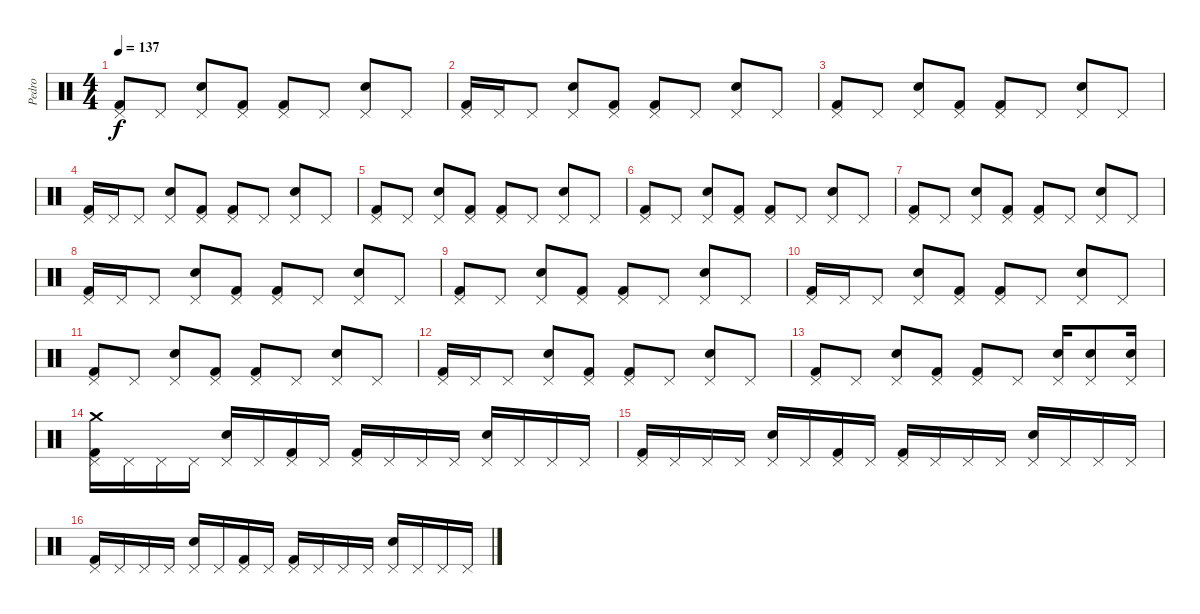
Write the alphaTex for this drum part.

\track ("Pedro" "Pedro") {instrument percussion}
\staff {score}
\articulation defaults
\ts (4 4)
\tempo 137
\clef neutral
\ks c
("Pedal Hi-Hat (hit)" "Kick (hit) 2").8{dy f} "Pedal Hi-Hat (hit)".8 ("Pedal Hi-Hat (hit)" "Snare (hit) 2").8 ("Pedal Hi-Hat (hit)" "Kick (hit) 2").8 ("Pedal Hi-Hat (hit)" "Kick (hit) 2").8 "Pedal Hi-Hat (hit)".8 ("Pedal Hi-Hat (hit)" "Snare (hit) 2").8 "Pedal Hi-Hat (hit)".8 |
("Pedal Hi-Hat (hit)" "Kick (hit) 2").16 "Pedal Hi-Hat (hit)".16 "Pedal Hi-Hat (hit)".8 ("Pedal Hi-Hat (hit)" "Snare (hit) 2").8 ("Pedal Hi-Hat (hit)" "Kick (hit) 2").8 ("Pedal Hi-Hat (hit)" "Kick (hit) 2").8 "Pedal Hi-Hat (hit)".8 ("Pedal Hi-Hat (hit)" "Snare (hit) 2").8 "Pedal Hi-Hat (hit)".8 |
("Kick (hit) 2" "Pedal Hi-Hat (hit)").8 "Pedal Hi-Hat (hit)".8 ("Snare (hit) 2" "Pedal Hi-Hat (hit)").8 ("Kick (hit) 2" "Pedal Hi-Hat (hit)").8 ("Kick (hit) 2" "Pedal Hi-Hat (hit)").8 "Pedal Hi-Hat (hit)".8 ("Snare (hit) 2" "Pedal Hi-Hat (hit)").8 "Pedal Hi-Hat (hit)".8 |
("Pedal Hi-Hat (hit)" "Kick (hit) 2").16 "Pedal Hi-Hat (hit)".16 "Pedal Hi-Hat (hit)".8 ("Pedal Hi-Hat (hit)" "Snare (hit) 2").8 ("Pedal Hi-Hat (hit)" "Kick (hit) 2").8 ("Pedal Hi-Hat (hit)" "Kick (hit) 2").8 "Pedal Hi-Hat (hit)".8 ("Pedal Hi-Hat (hit)" "Snare (hit) 2").8 "Pedal Hi-Hat (hit)".8 |
("Kick (hit) 2" "Pedal Hi-Hat (hit)").8 "Pedal Hi-Hat (hit)".8 ("Snare (hit) 2" "Pedal Hi-Hat (hit)").8 ("Kick (hit) 2" "Pedal Hi-Hat (hit)").8 ("Kick (hit) 2" "Pedal Hi-Hat (hit)").8 "Pedal Hi-Hat (hit)".8 ("Snare (hit) 2" "Pedal Hi-Hat (hit)").8 "Pedal Hi-Hat (hit)".8 |
("Pedal Hi-Hat (hit)" "Kick (hit) 2").8 "Pedal Hi-Hat (hit)".8 ("Pedal Hi-Hat (hit)" "Snare (hit) 2").8 ("Pedal Hi-Hat (hit)" "Kick (hit) 2").8 ("Pedal Hi-Hat (hit)" "Kick (hit) 2").8 "Pedal Hi-Hat (hit)".8 ("Pedal Hi-Hat (hit)" "Snare (hit) 2").8 "Pedal Hi-Hat (hit)".8 |
("Pedal Hi-Hat (hit)" "Kick (hit) 2").8 "Pedal Hi-Hat (hit)".8 ("Pedal Hi-Hat (hit)" "Snare (hit) 2").8 ("Pedal Hi-Hat (hit)" "Kick (hit) 2").8 ("Pedal Hi-Hat (hit)" "Kick (hit) 2").8 "Pedal Hi-Hat (hit)".8 ("Pedal Hi-Hat (hit)" "Snare (hit) 2").8 "Pedal Hi-Hat (hit)".8 |
("Pedal Hi-Hat (hit)" "Kick (hit) 2").16 "Pedal Hi-Hat (hit)".16 "Pedal Hi-Hat (hit)".8 ("Pedal Hi-Hat (hit)" "Snare (hit) 2").8 ("Pedal Hi-Hat (hit)" "Kick (hit) 2").8 ("Pedal Hi-Hat (hit)" "Kick (hit) 2").8 "Pedal Hi-Hat (hit)".8 ("Pedal Hi-Hat (hit)" "Snare (hit) 2").8 "Pedal Hi-Hat (hit)".8 |
("Kick (hit) 2" "Pedal Hi-Hat (hit)").8 "Pedal Hi-Hat (hit)".8 ("Snare (hit) 2" "Pedal Hi-Hat (hit)").8 ("Kick (hit) 2" "Pedal Hi-Hat (hit)").8 ("Kick (hit) 2" "Pedal Hi-Hat (hit)").8 "Pedal Hi-Hat (hit)".8 ("Snare (hit) 2" "Pedal Hi-Hat (hit)").8 "Pedal Hi-Hat (hit)".8 |
("Pedal Hi-Hat (hit)" "Kick (hit) 2").16 "Pedal Hi-Hat (hit)".16 "Pedal Hi-Hat (hit)".8 ("Pedal Hi-Hat (hit)" "Snare (hit) 2").8 ("Pedal Hi-Hat (hit)" "Kick (hit) 2").8 ("Pedal Hi-Hat (hit)" "Kick (hit) 2").8 "Pedal Hi-Hat (hit)".8 ("Pedal Hi-Hat (hit)" "Snare (hit) 2").8 "Pedal Hi-Hat (hit)".8 |
("Pedal Hi-Hat (hit)" "Kick (hit) 2").8 "Pedal Hi-Hat (hit)".8 ("Pedal Hi-Hat (hit)" "Snare (hit) 2").8 ("Pedal Hi-Hat (hit)" "Kick (hit) 2").8 ("Pedal Hi-Hat (hit)" "Kick (hit) 2").8 "Pedal Hi-Hat (hit)".8 ("Pedal Hi-Hat (hit)" "Snare (hit) 2").8 "Pedal Hi-Hat (hit)".8 |
("Pedal Hi-Hat (hit)" "Kick (hit) 2").16 "Pedal Hi-Hat (hit)".16 "Pedal Hi-Hat (hit)".8 ("Pedal Hi-Hat (hit)" "Snare (hit) 2").8 ("Pedal Hi-Hat (hit)" "Kick (hit) 2").8 ("Pedal Hi-Hat (hit)" "Kick (hit) 2").8 "Pedal Hi-Hat (hit)".8 ("Pedal Hi-Hat (hit)" "Snare (hit) 2").8 "Pedal Hi-Hat (hit)".8 |
("Kick (hit) 2" "Pedal Hi-Hat (hit)").8 "Pedal Hi-Hat (hit)".8 ("Snare (hit) 2" "Pedal Hi-Hat (hit)").8 ("Kick (hit) 2" "Pedal Hi-Hat (hit)").8 ("Kick (hit) 2" "Pedal Hi-Hat (hit)").8 "Pedal Hi-Hat (hit)".8 ("Pedal Hi-Hat (hit)" "Snare (hit) 2").16 ("Pedal Hi-Hat (hit)" "Snare (hit) 2").8 ("Pedal Hi-Hat (hit)" "Snare (hit) 2").16 |
("Pedal Hi-Hat (hit)" "Crash medium (hit)" "Kick (hit) 2").16 "Pedal Hi-Hat (hit)".16 "Pedal Hi-Hat (hit)".16 "Pedal Hi-Hat (hit)".16 ("Pedal Hi-Hat (hit)" "Snare (hit) 2").16 "Pedal Hi-Hat (hit)".16 ("Pedal Hi-Hat (hit)" "Kick (hit) 2").16 "Pedal Hi-Hat (hit)".16 ("Pedal Hi-Hat (hit)" "Kick (hit) 2").16 "Pedal Hi-Hat (hit)".16 "Pedal Hi-Hat (hit)".16 "Pedal Hi-Hat (hit)".16 ("Pedal Hi-Hat (hit)" "Snare (hit) 2").16 "Pedal Hi-Hat (hit)".16 "Pedal Hi-Hat (hit)".16 "Pedal Hi-Hat (hit)".16 |
("Pedal Hi-Hat (hit)" "Kick (hit) 2").16 "Pedal Hi-Hat (hit)".16 "Pedal Hi-Hat (hit)".16 "Pedal Hi-Hat (hit)".16 ("Pedal Hi-Hat (hit)" "Snare (hit) 2").16 "Pedal Hi-Hat (hit)".16 ("Pedal Hi-Hat (hit)" "Kick (hit) 2").16 "Pedal Hi-Hat (hit)".16 ("Pedal Hi-Hat (hit)" "Kick (hit) 2").16 "Pedal Hi-Hat (hit)".16 "Pedal Hi-Hat (hit)".16 "Pedal Hi-Hat (hit)".16 ("Pedal Hi-Hat (hit)" "Snare (hit) 2").16 "Pedal Hi-Hat (hit)".16 "Pedal Hi-Hat (hit)".16 "Pedal Hi-Hat (hit)".16 |
("Pedal Hi-Hat (hit)" "Kick (hit) 2").16 "Pedal Hi-Hat (hit)".16 "Pedal Hi-Hat (hit)".16 "Pedal Hi-Hat (hit)".16 ("Pedal Hi-Hat (hit)" "Snare (hit) 2").16 "Pedal Hi-Hat (hit)".16 ("Pedal Hi-Hat (hit)" "Kick (hit) 2").16 "Pedal Hi-Hat (hit)".16 ("Pedal Hi-Hat (hit)" "Kick (hit) 2").16 "Pedal Hi-Hat (hit)".16 "Pedal Hi-Hat (hit)".16 "Pedal Hi-Hat (hit)".16 ("Pedal Hi-Hat (hit)" "Snare (hit) 2").16 "Pedal Hi-Hat (hit)".16 "Pedal Hi-Hat (hit)".16 "Pedal Hi-Hat (hit)".16
